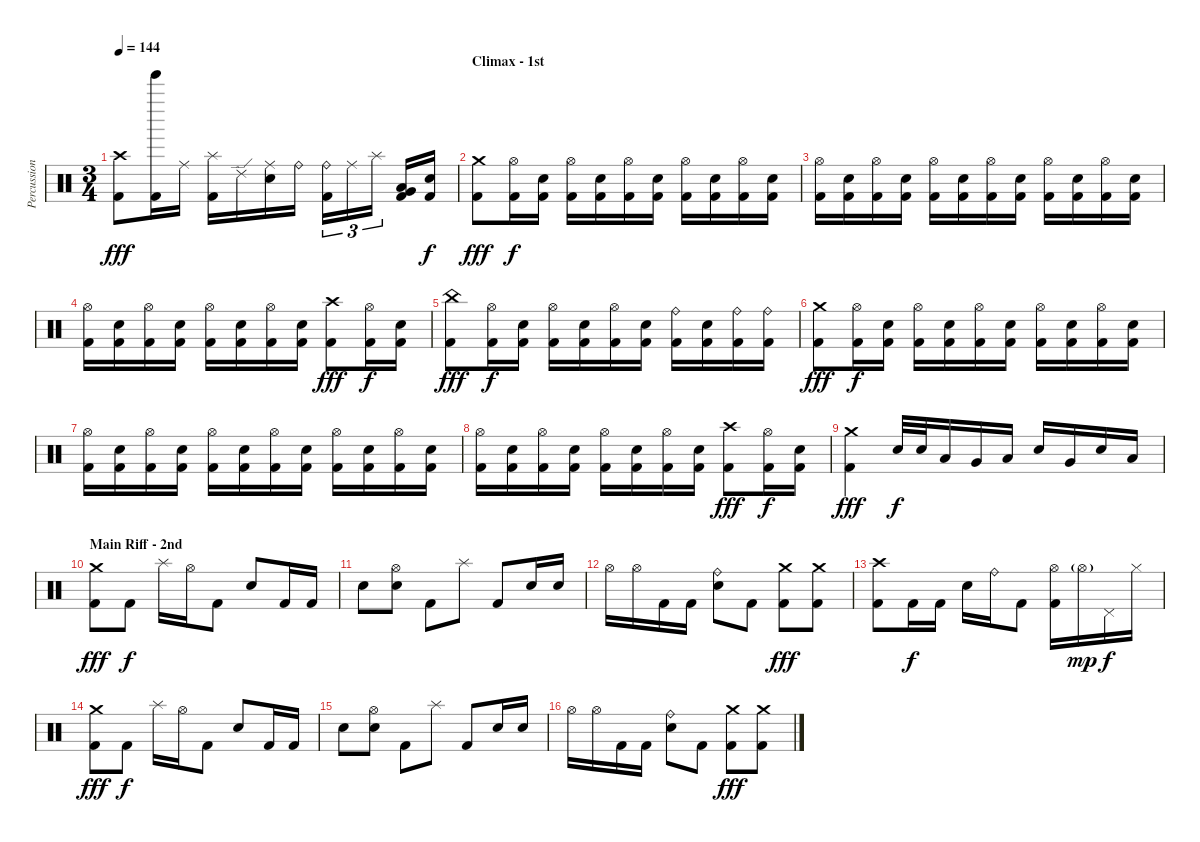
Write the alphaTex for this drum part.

\track ("Percussion" "Percussion") {instrument percussion}
\staff {score}
\articulation defaults
\ts (3 4)
\tempo 144
\clef neutral
\ks c
("Crash high (hit)" "Kick (hit) 2").8{dy fff} ("Tinkle Bell (hit)" "Kick (hit) 2").16 "Ride (middle)".16 ("Splash (hit)" "Kick (hit) 2").16 "Ride (edge) 2".16 ("Ride (middle)" "Electric Snare (hit)").16 "Ride (bell)".16 ("Ride (bell)" "Kick (hit) 2").16{tu (3 2)} "Ride (middle)".16{tu (3 2)} "Splash (hit)".16{tu (3 2)} ("Very Low Tom (hit)" "Low Tom (hit)" "Kick (hit) 2").16 ("Electric Snare (hit)" "Kick (hit) 2").16{dy f} |
\section ("" "Climax - 1st")
("Crash medium (hit)" "Kick (hit) 2").8{dy fff} ("Hi-Hat (open)" "Kick (hit) 2").16{dy f} ("Electric Snare (hit)" "Kick (hit) 2").16 ("Hi-Hat (open)" "Kick (hit) 2").16 ("Electric Snare (hit)" "Kick (hit) 2").16 ("Hi-Hat (open)" "Kick (hit) 2").16 ("Electric Snare (hit)" "Kick (hit) 2").16 ("Hi-Hat (open)" "Kick (hit) 2").16 ("Electric Snare (hit)" "Kick (hit) 2").16 ("Hi-Hat (open)" "Kick (hit) 2").16 ("Electric Snare (hit)" "Kick (hit) 2").16 |
("Hi-Hat (open)" "Kick (hit) 2").16 ("Electric Snare (hit)" "Kick (hit) 2").16 ("Hi-Hat (open)" "Kick (hit) 2").16 ("Electric Snare (hit)" "Kick (hit) 2").16 ("Hi-Hat (open)" "Kick (hit) 2").16 ("Electric Snare (hit)" "Kick (hit) 2").16 ("Hi-Hat (open)" "Kick (hit) 2").16 ("Electric Snare (hit)" "Kick (hit) 2").16 ("Hi-Hat (open)" "Kick (hit) 2").16 ("Electric Snare (hit)" "Kick (hit) 2").16 ("Hi-Hat (open)" "Kick (hit) 2").16 ("Electric Snare (hit)" "Kick (hit) 2").16 |
("Hi-Hat (open)" "Kick (hit) 2").16 ("Electric Snare (hit)" "Kick (hit) 2").16 ("Hi-Hat (open)" "Kick (hit) 2").16 ("Electric Snare (hit)" "Kick (hit) 2").16 ("Hi-Hat (open)" "Kick (hit) 2").16 ("Electric Snare (hit)" "Kick (hit) 2").16 ("Hi-Hat (open)" "Kick (hit) 2").16 ("Electric Snare (hit)" "Kick (hit) 2").16 ("Crash high (hit)" "Kick (hit) 2").8{dy fff} ("Hi-Hat (open)" "Kick (hit) 2").16{dy f} ("Electric Snare (hit)" "Kick (hit) 2").16 |
("China (hit)" "Kick (hit) 2").8{dy fff} ("Hi-Hat (open)" "Kick (hit) 2").16{dy f} ("Electric Snare (hit)" "Kick (hit) 2").16 ("Hi-Hat (open)" "Kick (hit) 2").16 ("Electric Snare (hit)" "Kick (hit) 2").16 ("Hi-Hat (open)" "Kick (hit) 2").16 ("Electric Snare (hit)" "Kick (hit) 2").16 ("Ride (bell)" "Kick (hit) 2").16 ("Electric Snare (hit)" "Kick (hit) 2").16 ("Ride (bell)" "Kick (hit) 2").16 ("Ride (bell)" "Kick (hit) 2").16 |
("Crash medium (hit)" "Kick (hit) 2").8{dy fff} ("Hi-Hat (open)" "Kick (hit) 2").16{dy f} ("Electric Snare (hit)" "Kick (hit) 2").16 ("Hi-Hat (open)" "Kick (hit) 2").16 ("Electric Snare (hit)" "Kick (hit) 2").16 ("Hi-Hat (open)" "Kick (hit) 2").16 ("Electric Snare (hit)" "Kick (hit) 2").16 ("Hi-Hat (open)" "Kick (hit) 2").16 ("Electric Snare (hit)" "Kick (hit) 2").16 ("Hi-Hat (open)" "Kick (hit) 2").16 ("Electric Snare (hit)" "Kick (hit) 2").16 |
("Hi-Hat (open)" "Kick (hit) 2").16 ("Electric Snare (hit)" "Kick (hit) 2").16 ("Hi-Hat (open)" "Kick (hit) 2").16 ("Electric Snare (hit)" "Kick (hit) 2").16 ("Hi-Hat (open)" "Kick (hit) 2").16 ("Electric Snare (hit)" "Kick (hit) 2").16 ("Hi-Hat (open)" "Kick (hit) 2").16 ("Electric Snare (hit)" "Kick (hit) 2").16 ("Hi-Hat (open)" "Kick (hit) 2").16 ("Electric Snare (hit)" "Kick (hit) 2").16 ("Hi-Hat (open)" "Kick (hit) 2").16 ("Electric Snare (hit)" "Kick (hit) 2").16 |
("Hi-Hat (open)" "Kick (hit) 2").16 ("Electric Snare (hit)" "Kick (hit) 2").16 ("Hi-Hat (open)" "Kick (hit) 2").16 ("Electric Snare (hit)" "Kick (hit) 2").16 ("Hi-Hat (open)" "Kick (hit) 2").16 ("Electric Snare (hit)" "Kick (hit) 2").16 ("Hi-Hat (open)" "Kick (hit) 2").16 ("Electric Snare (hit)" "Kick (hit) 2").16 ("Crash high (hit)" "Kick (hit) 2").8{dy fff} ("Hi-Hat (open)" "Kick (hit) 2").16{dy f} ("Electric Snare (hit)" "Kick (hit) 2").16 |
("Crash medium (hit)" "Kick (hit) 2").4{dy fff} "Electric Snare (hit)".32{dy f} "Electric Snare (hit)".32 "Low Tom (hit)".16 "Very Low Tom (hit)".16 "Low Tom (hit)".16 "Electric Snare (hit)".16 "Very Low Tom (hit)".16 "Electric Snare (hit)".16 "Low Tom (hit)".16 |
\section ("" "Main Riff - 2nd")
("Crash medium (hit)" "Kick (hit) 2").8{dy fff} "Kick (hit) 2".8{dy f} "Splash (hit)".16 "Hi-Hat (open)".16 "Kick (hit) 2".8 "Electric Snare (hit)".8 "Kick (hit) 2".16 "Kick (hit) 2".16 |
"Electric Snare (hit)".8 ("Hi-Hat (open)" "Electric Snare (hit)").8 "Kick (hit) 2".8 "Splash (hit)".8 "Kick (hit) 2".8 "Electric Snare (hit)".16 "Electric Snare (hit)".16 |
"Hi-Hat (open)".16 "Hi-Hat (open)".16 "Kick (hit) 2".16 "Kick (hit) 2".16 ("Ride (bell)" "Electric Snare (hit)").8 "Kick (hit) 2".8 ("Crash medium (hit)" "Kick (hit) 2").8{dy fff} ("Crash medium (hit)" "Kick (hit) 2").8 |
("Crash high (hit)" "Kick (hit) 2").8 "Kick (hit) 2".16{dy f} "Kick (hit) 2".16 "Electric Snare (hit)".16 "Ride (bell)".16 "Kick (hit) 2".8 ("Hi-Hat (open)" "Kick (hit) 2").16 "Hi-Hat (open)"{g}.16{dy mp} "Pedal Hi-Hat (hit)".16{dy f} "Hi-Hat (closed)".16 |
("Crash medium (hit)" "Kick (hit) 2").8{dy fff} "Kick (hit) 2".8{dy f} "Splash (hit)".16 "Hi-Hat (open)".16 "Kick (hit) 2".8 "Electric Snare (hit)".8 "Kick (hit) 2".16 "Kick (hit) 2".16 |
"Electric Snare (hit)".8 ("Hi-Hat (open)" "Electric Snare (hit)").8 "Kick (hit) 2".8 "Splash (hit)".8 "Kick (hit) 2".8 "Electric Snare (hit)".16 "Electric Snare (hit)".16 |
"Hi-Hat (open)".16 "Hi-Hat (open)".16 "Kick (hit) 2".16 "Kick (hit) 2".16 ("Ride (bell)" "Electric Snare (hit)").8 "Kick (hit) 2".8 ("Crash medium (hit)" "Kick (hit) 2").8{dy fff} ("Crash medium (hit)" "Kick (hit) 2").8
